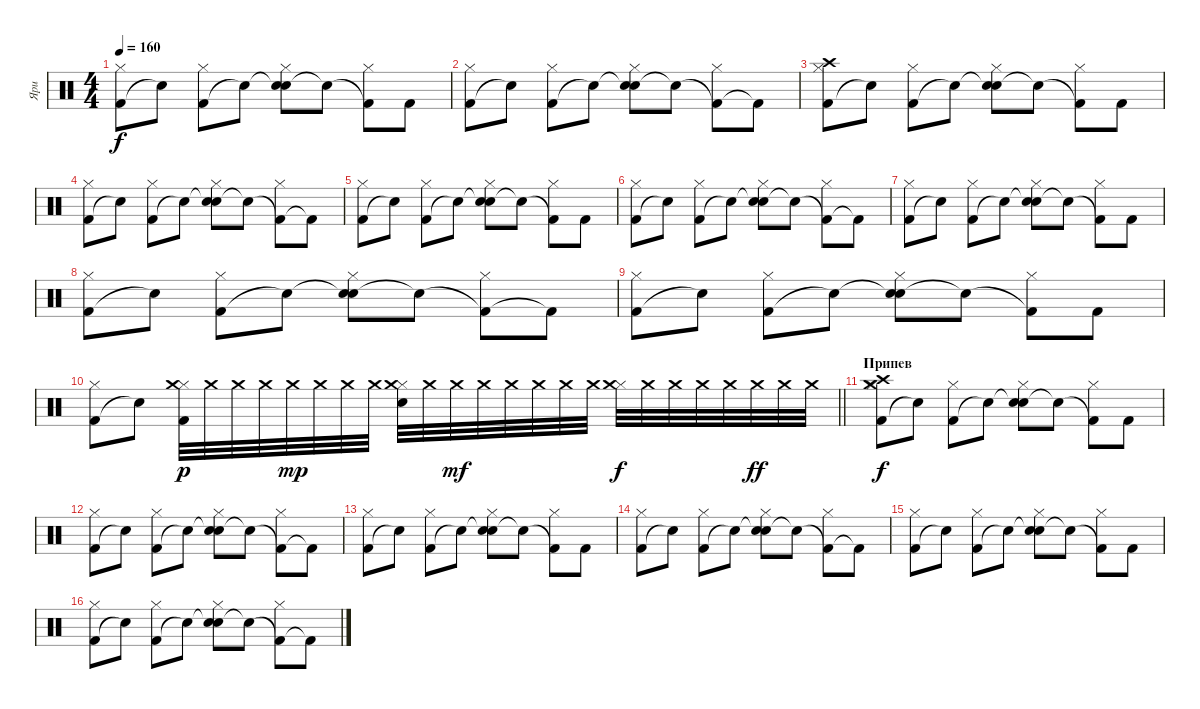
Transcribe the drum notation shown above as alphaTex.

\track ("Яри" "Яри") {instrument percussion}
\staff {score}
\articulation defaults
\ts (4 4)
\tempo 160
\clef neutral
\ks c
("Kick (hit) 2" "Hi-Hat (closed)").8{dy f} "Snare (hit)"{t}.8 ("Kick (hit) 2" "Hi-Hat (closed)").8 "Snare (hit)"{t}.8 ("Snare (hit)"{t} "Hi-Hat (closed)" "Snare (hit) 2").8 "Snare (hit)"{t}.8 ("Kick (hit) 2"{t} "Hi-Hat (closed)").8 "Kick (hit) 2".8 |
("Kick (hit) 2" "Hi-Hat (closed)").8 "Snare (hit)"{t}.8 ("Kick (hit) 2" "Hi-Hat (closed)").8 "Snare (hit)"{t}.8 ("Snare (hit)"{t} "Hi-Hat (closed)" "Snare (hit) 2").8 "Snare (hit)"{t}.8 ("Kick (hit) 2"{t} "Hi-Hat (closed)").8 "Kick (hit) 2"{t}.8 |
("Kick (hit) 2" "Hi-Hat (closed)" "Crash high (hit)").8 "Snare (hit)"{t}.8 ("Kick (hit) 2" "Hi-Hat (closed)").8 "Snare (hit)"{t}.8 ("Snare (hit)"{t} "Hi-Hat (closed)" "Snare (hit) 2").8 "Snare (hit)"{t}.8 ("Kick (hit) 2"{t} "Hi-Hat (closed)").8 "Kick (hit) 2".8 |
("Kick (hit) 2" "Hi-Hat (closed)").8 "Snare (hit)"{t}.8 ("Kick (hit) 2" "Hi-Hat (closed)").8 "Snare (hit)"{t}.8 ("Snare (hit)"{t} "Hi-Hat (closed)" "Snare (hit) 2").8 "Snare (hit)"{t}.8 ("Kick (hit) 2"{t} "Hi-Hat (closed)").8 "Kick (hit) 2"{t}.8 |
("Kick (hit) 2" "Hi-Hat (closed)").8 "Snare (hit)"{t}.8 ("Kick (hit) 2" "Hi-Hat (closed)").8 "Snare (hit)"{t}.8 ("Snare (hit)"{t} "Hi-Hat (closed)" "Snare (hit) 2").8 "Snare (hit)"{t}.8 ("Kick (hit) 2"{t} "Hi-Hat (closed)").8 "Kick (hit) 2".8 |
("Kick (hit) 2" "Hi-Hat (closed)").8 "Snare (hit)"{t}.8 ("Kick (hit) 2" "Hi-Hat (closed)").8 "Snare (hit)"{t}.8 ("Snare (hit)"{t} "Hi-Hat (closed)" "Snare (hit) 2").8 "Snare (hit)"{t}.8 ("Kick (hit) 2"{t} "Hi-Hat (closed)").8 "Kick (hit) 2"{t}.8 |
("Kick (hit) 2" "Hi-Hat (closed)").8 "Snare (hit)"{t}.8 ("Kick (hit) 2" "Hi-Hat (closed)").8 "Snare (hit)"{t}.8 ("Snare (hit)"{t} "Hi-Hat (closed)" "Snare (hit) 2").8 "Snare (hit)"{t}.8 ("Kick (hit) 2"{t} "Hi-Hat (closed)").8 "Kick (hit) 2".8 |
("Kick (hit) 2" "Hi-Hat (closed)").8 "Snare (hit)"{t}.8 ("Kick (hit) 2" "Hi-Hat (closed)").8 "Snare (hit)"{t}.8 ("Snare (hit)"{t} "Hi-Hat (closed)" "Snare (hit) 2").8 "Snare (hit)"{t}.8 ("Kick (hit) 2"{t} "Hi-Hat (closed)").8 "Kick (hit) 2"{t}.8 |
("Kick (hit) 2" "Hi-Hat (closed)").8 "Snare (hit)"{t}.8 ("Kick (hit) 2" "Hi-Hat (closed)").8 "Snare (hit)"{t}.8 ("Snare (hit)"{t} "Hi-Hat (closed)" "Snare (hit) 2").8 "Snare (hit)"{t}.8 ("Kick (hit) 2"{t} "Hi-Hat (closed)").8 "Kick (hit) 2".8 |
\barLineRight lightlight
("Kick (hit) 2" "Hi-Hat (closed)").8 "Snare (hit)"{t}.8 ("Kick (hit) 2" "Hi-Hat (closed)" "Crash medium (hit)").32{dy p} "Crash medium (hit)".32 "Crash medium (hit)".32 "Crash medium (hit)".32 "Crash medium (hit)".32{dy mp} "Crash medium (hit)".32 "Crash medium (hit)".32 "Crash medium (hit)".32 ("Hi-Hat (closed)" "Crash medium (hit)" "Snare (hit) 2").32 "Crash medium (hit)".32 "Crash medium (hit)".32{dy mf} "Crash medium (hit)".32 "Crash medium (hit)".32 "Crash medium (hit)".32 "Crash medium (hit)".32 "Crash medium (hit)".32 ("Hi-Hat (closed)" "Crash medium (hit)").32{dy f} "Crash medium (hit)".32 "Crash medium (hit)".32 "Crash medium (hit)".32 "Crash medium (hit)".32 "Crash medium (hit)".32{dy ff} "Crash medium (hit)".32 "Crash medium (hit)".32 |
\section ("" "Припев")
("Kick (hit) 2" "Hi-Hat (closed)" "Crash medium (hit)" "Crash high (hit)").8{dy f} "Snare (hit)"{t}.8 ("Kick (hit) 2" "Hi-Hat (closed)").8 "Snare (hit)"{t}.8 ("Snare (hit)"{t} "Hi-Hat (closed)" "Snare (hit) 2").8 "Snare (hit)"{t}.8 ("Kick (hit) 2"{t} "Hi-Hat (closed)").8 "Kick (hit) 2".8 |
("Kick (hit) 2" "Hi-Hat (closed)").8 "Snare (hit)"{t}.8 ("Kick (hit) 2" "Hi-Hat (closed)").8 "Snare (hit)"{t}.8 ("Snare (hit)"{t} "Hi-Hat (closed)" "Snare (hit) 2").8 "Snare (hit)"{t}.8 ("Kick (hit) 2"{t} "Hi-Hat (closed)").8 "Kick (hit) 2"{t}.8 |
("Kick (hit) 2" "Hi-Hat (closed)").8 "Snare (hit)"{t}.8 ("Kick (hit) 2" "Hi-Hat (closed)").8 "Snare (hit)"{t}.8 ("Snare (hit)"{t} "Hi-Hat (closed)" "Snare (hit) 2").8 "Snare (hit)"{t}.8 ("Kick (hit) 2"{t} "Hi-Hat (closed)").8 "Kick (hit) 2".8 |
("Kick (hit) 2" "Hi-Hat (closed)").8 "Snare (hit)"{t}.8 ("Kick (hit) 2" "Hi-Hat (closed)").8 "Snare (hit)"{t}.8 ("Snare (hit)"{t} "Hi-Hat (closed)" "Snare (hit) 2").8 "Snare (hit)"{t}.8 ("Kick (hit) 2"{t} "Hi-Hat (closed)").8 "Kick (hit) 2"{t}.8 |
("Kick (hit) 2" "Hi-Hat (closed)").8 "Snare (hit)"{t}.8 ("Kick (hit) 2" "Hi-Hat (closed)").8 "Snare (hit)"{t}.8 ("Snare (hit)"{t} "Hi-Hat (closed)" "Snare (hit) 2").8 "Snare (hit)"{t}.8 ("Kick (hit) 2"{t} "Hi-Hat (closed)").8 "Kick (hit) 2".8 |
("Kick (hit) 2" "Hi-Hat (closed)").8 "Snare (hit)"{t}.8 ("Kick (hit) 2" "Hi-Hat (closed)").8 "Snare (hit)"{t}.8 ("Snare (hit)"{t} "Hi-Hat (closed)" "Snare (hit) 2").8 "Snare (hit)"{t}.8 ("Kick (hit) 2"{t} "Hi-Hat (closed)").8 "Kick (hit) 2"{t}.8
